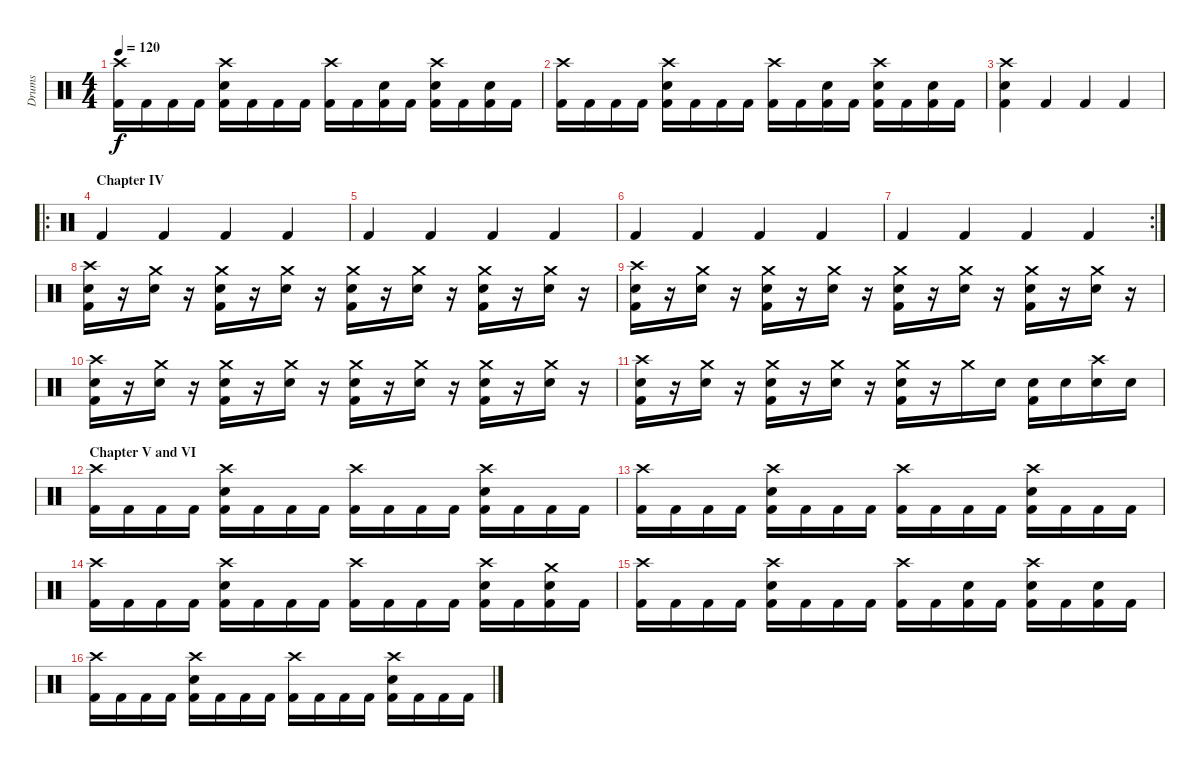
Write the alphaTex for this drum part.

\track ("Drums" "Drums") {instrument percussion}
\staff {score}
\articulation defaults
\ts (4 4)
\tempo 120
\clef neutral
\ks c
("Crash high (hit)" "Kick (hit) 2").16{dy f} "Kick (hit) 2".16 "Kick (hit) 2".16 "Kick (hit) 2".16 ("Crash high (hit)" "Electric Snare (hit)" "Kick (hit) 2").16 "Kick (hit) 2".16 "Kick (hit) 2".16 "Kick (hit) 2".16 ("Crash high (hit)" "Kick (hit) 2").16 "Kick (hit) 2".16 ("Electric Snare (hit)" "Kick (hit) 2").16 "Kick (hit) 2".16 ("Crash high (hit)" "Electric Snare (hit)" "Kick (hit) 2").16 "Kick (hit) 2".16 ("Electric Snare (hit)" "Kick (hit) 2").16 "Kick (hit) 2".16 |
("Crash high (hit)" "Kick (hit) 2").16 "Kick (hit) 2".16 "Kick (hit) 2".16 "Kick (hit) 2".16 ("Crash high (hit)" "Electric Snare (hit)" "Kick (hit) 2").16 "Kick (hit) 2".16 "Kick (hit) 2".16 "Kick (hit) 2".16 ("Crash high (hit)" "Kick (hit) 2").16 "Kick (hit) 2".16 ("Electric Snare (hit)" "Kick (hit) 2").16 "Kick (hit) 2".16 ("Crash high (hit)" "Electric Snare (hit)" "Kick (hit) 2").16 "Kick (hit) 2".16 ("Electric Snare (hit)" "Kick (hit) 2").16 "Kick (hit) 2".16 |
("Crash high (hit)" "Electric Snare (hit)" "Kick (hit) 2").4 "Kick (hit) 2".4 "Kick (hit) 2".4 "Kick (hit) 2".4 |
\ro
\section ("" "Chapter IV")
"Kick (hit) 2".4 "Kick (hit) 2".4 "Kick (hit) 2".4 "Kick (hit) 2".4 |
"Kick (hit) 2".4 "Kick (hit) 2".4 "Kick (hit) 2".4 "Kick (hit) 2".4 |
"Kick (hit) 2".4 "Kick (hit) 2".4 "Kick (hit) 2".4 "Kick (hit) 2".4 |
\rc 2 "Kick (hit) 2".4 "Kick (hit) 2".4 "Kick (hit) 2".4 "Kick (hit) 2".4
|
("Crash high (hit)" "Snare (hit) 2" "Kick (hit) 2").16 r.16 ("Crash medium (hit)" "Snare (hit) 2").16 r.16 ("Crash medium (hit)" "Snare (hit) 2" "Kick (hit) 2").16 r.16 ("Crash medium (hit)" "Snare (hit) 2").16 r.16 ("Crash medium (hit)" "Snare (hit) 2" "Kick (hit) 2").16 r.16 ("Crash medium (hit)" "Snare (hit) 2").16 r.16 ("Crash medium (hit)" "Snare (hit) 2" "Kick (hit) 2").16 r.16 ("Crash medium (hit)" "Snare (hit) 2").16 r.16 |
("Crash high (hit)" "Snare (hit) 2" "Kick (hit) 2").16 r.16 ("Crash medium (hit)" "Snare (hit) 2").16 r.16 ("Crash medium (hit)" "Snare (hit) 2" "Kick (hit) 2").16 r.16 ("Crash medium (hit)" "Snare (hit) 2").16 r.16 ("Crash medium (hit)" "Snare (hit) 2" "Kick (hit) 2").16 r.16 ("Crash medium (hit)" "Snare (hit) 2").16 r.16 ("Crash medium (hit)" "Snare (hit) 2" "Kick (hit) 2").16 r.16 ("Crash medium (hit)" "Snare (hit) 2").16 r.16 |
("Crash high (hit)" "Snare (hit) 2" "Kick (hit) 2").16 r.16 ("Crash medium (hit)" "Snare (hit) 2").16 r.16 ("Crash medium (hit)" "Snare (hit) 2" "Kick (hit) 2").16 r.16 ("Crash medium (hit)" "Snare (hit) 2").16 r.16 ("Crash medium (hit)" "Snare (hit) 2" "Kick (hit) 2").16 r.16 ("Crash medium (hit)" "Snare (hit) 2").16 r.16 ("Crash medium (hit)" "Snare (hit) 2" "Kick (hit) 2").16 r.16 ("Crash medium (hit)" "Snare (hit) 2").16 r.16 |
("Crash high (hit)" "Snare (hit) 2" "Kick (hit) 2").16 r.16 ("Crash medium (hit)" "Snare (hit) 2").16 r.16 ("Crash medium (hit)" "Snare (hit) 2" "Kick (hit) 2").16 r.16 ("Crash medium (hit)" "Snare (hit) 2").16 r.16 ("Crash medium (hit)" "Snare (hit) 2" "Kick (hit) 2").16 r.16 "Crash medium (hit)".16 "Electric Snare (hit)".16 ("Electric Snare (hit)" "Kick (hit) 2").16 "Electric Snare (hit)".16 ("Crash high (hit)" "Electric Snare (hit)").16 "Electric Snare (hit)".16 |
\section ("" "Chapter V and VI")
("Crash high (hit)" "Kick (hit) 2").16 "Kick (hit) 2".16 "Kick (hit) 2".16 "Kick (hit) 2".16 ("Crash high (hit)" "Electric Snare (hit)" "Kick (hit) 2").16 "Kick (hit) 2".16 "Kick (hit) 2".16 "Kick (hit) 2".16 ("Crash high (hit)" "Kick (hit) 2").16 "Kick (hit) 2".16 "Kick (hit) 2".16 "Kick (hit) 2".16 ("Crash high (hit)" "Electric Snare (hit)" "Kick (hit) 2").16 "Kick (hit) 2".16 "Kick (hit) 2".16 "Kick (hit) 2".16 |
("Crash high (hit)" "Kick (hit) 2").16 "Kick (hit) 2".16 "Kick (hit) 2".16 "Kick (hit) 2".16 ("Crash high (hit)" "Electric Snare (hit)" "Kick (hit) 2").16 "Kick (hit) 2".16 "Kick (hit) 2".16 "Kick (hit) 2".16 ("Crash high (hit)" "Kick (hit) 2").16 "Kick (hit) 2".16 "Kick (hit) 2".16 "Kick (hit) 2".16 ("Crash high (hit)" "Electric Snare (hit)" "Kick (hit) 2").16 "Kick (hit) 2".16 "Kick (hit) 2".16 "Kick (hit) 2".16 |
("Crash high (hit)" "Kick (hit) 2").16 "Kick (hit) 2".16 "Kick (hit) 2".16 "Kick (hit) 2".16 ("Crash high (hit)" "Electric Snare (hit)" "Kick (hit) 2").16 "Kick (hit) 2".16 "Kick (hit) 2".16 "Kick (hit) 2".16 ("Crash high (hit)" "Kick (hit) 2").16 "Kick (hit) 2".16 "Kick (hit) 2".16 "Kick (hit) 2".16 ("Crash high (hit)" "Electric Snare (hit)" "Kick (hit) 2").16 "Kick (hit) 2".16 ("Crash medium (hit)" "Electric Snare (hit)" "Kick (hit) 2").16 "Kick (hit) 2".16 |
("Crash high (hit)" "Kick (hit) 2").16 "Kick (hit) 2".16 "Kick (hit) 2".16 "Kick (hit) 2".16 ("Crash high (hit)" "Electric Snare (hit)" "Kick (hit) 2").16 "Kick (hit) 2".16 "Kick (hit) 2".16 "Kick (hit) 2".16 ("Crash high (hit)" "Kick (hit) 2").16 "Kick (hit) 2".16 ("Electric Snare (hit)" "Kick (hit) 2").16 "Kick (hit) 2".16 ("Crash high (hit)" "Electric Snare (hit)" "Kick (hit) 2").16 "Kick (hit) 2".16 ("Electric Snare (hit)" "Kick (hit) 2").16 "Kick (hit) 2".16 |
("Crash high (hit)" "Kick (hit) 2").16 "Kick (hit) 2".16 "Kick (hit) 2".16 "Kick (hit) 2".16 ("Crash high (hit)" "Electric Snare (hit)" "Kick (hit) 2").16 "Kick (hit) 2".16 "Kick (hit) 2".16 "Kick (hit) 2".16 ("Crash high (hit)" "Kick (hit) 2").16 "Kick (hit) 2".16 "Kick (hit) 2".16 "Kick (hit) 2".16 ("Crash high (hit)" "Electric Snare (hit)" "Kick (hit) 2").16 "Kick (hit) 2".16 "Kick (hit) 2".16 "Kick (hit) 2".16
